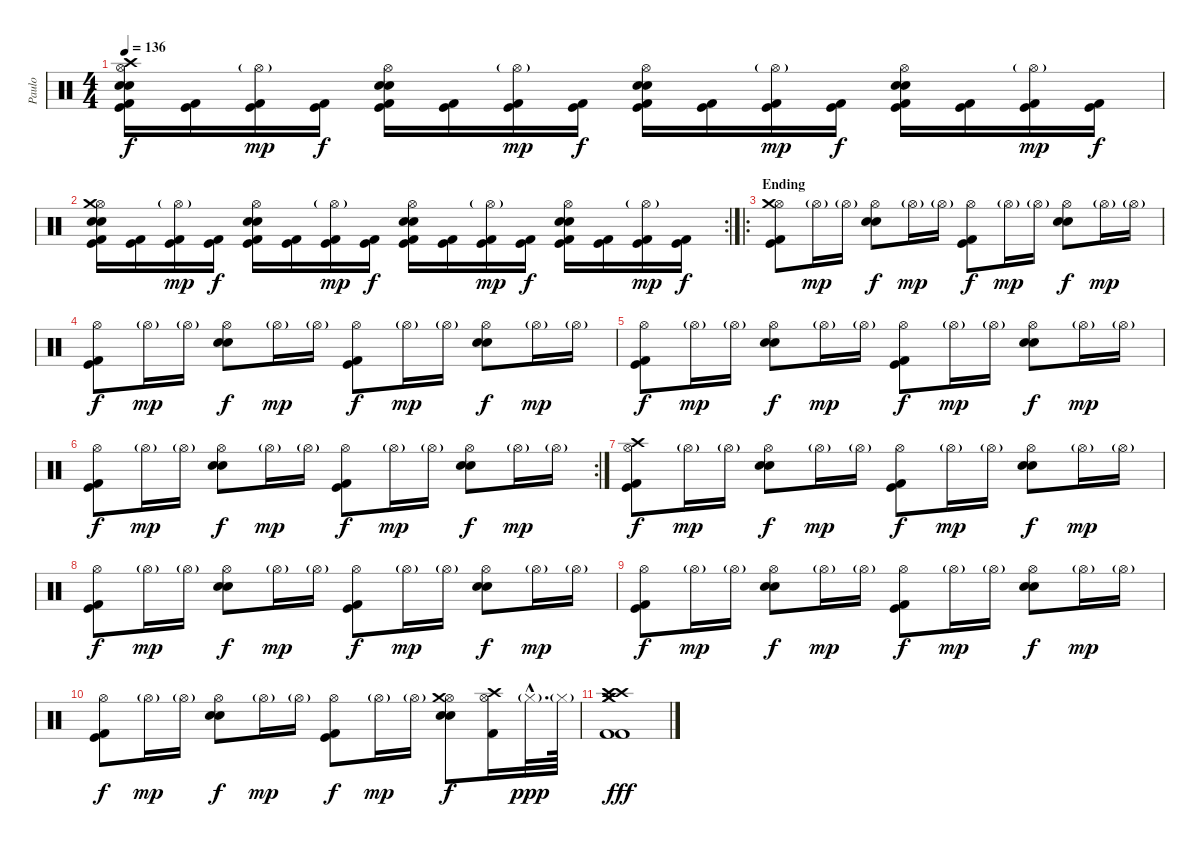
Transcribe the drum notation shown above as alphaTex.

\track ("Paulo" "Paulo") {instrument percussion}
\staff {score}
\articulation defaults
\ts (4 4)
\tempo 136
\clef neutral
\ks c
("Hi-Hat (open)" "Snare (hit) 2" "Electric Snare (hit)" "Crash high (hit)" "Kick (hit) 2" "Kick (hit)").16{dy f} ("Kick (hit) 2" "Kick (hit)").16 ("Hi-Hat (open)"{g} "Kick (hit) 2" "Kick (hit)").16{dy mp} ("Kick (hit) 2" "Kick (hit)").16{dy f} ("Hi-Hat (open)" "Snare (hit) 2" "Electric Snare (hit)" "Kick (hit) 2" "Kick (hit)").16 ("Kick (hit) 2" "Kick (hit)").16 ("Hi-Hat (open)"{g} "Kick (hit) 2" "Kick (hit)").16{dy mp} ("Kick (hit) 2" "Kick (hit)").16{dy f} ("Hi-Hat (open)" "Snare (hit) 2" "Electric Snare (hit)" "Kick (hit) 2" "Kick (hit)").16 ("Kick (hit) 2" "Kick (hit)").16 ("Hi-Hat (open)"{g} "Kick (hit) 2" "Kick (hit)").16{dy mp} ("Kick (hit) 2" "Kick (hit)").16{dy f} ("Hi-Hat (open)" "Snare (hit) 2" "Electric Snare (hit)" "Kick (hit) 2" "Kick (hit)").16 ("Kick (hit) 2" "Kick (hit)").16 ("Hi-Hat (open)"{g} "Kick (hit) 2" "Kick (hit)").16{dy mp} ("Kick (hit) 2" "Kick (hit)").16{dy f} |
\rc 2
("Hi-Hat (open)" "Snare (hit) 2" "Electric Snare (hit)" "Crash medium (hit)" "Kick (hit) 2" "Kick (hit)").16 ("Kick (hit) 2" "Kick (hit)").16 ("Hi-Hat (open)"{g} "Kick (hit) 2" "Kick (hit)").16{dy mp} ("Kick (hit) 2" "Kick (hit)").16{dy f} ("Hi-Hat (open)" "Snare (hit) 2" "Electric Snare (hit)" "Kick (hit) 2" "Kick (hit)").16 ("Kick (hit) 2" "Kick (hit)").16 ("Hi-Hat (open)"{g} "Kick (hit) 2" "Kick (hit)").16{dy mp} ("Kick (hit) 2" "Kick (hit)").16{dy f} ("Hi-Hat (open)" "Snare (hit) 2" "Electric Snare (hit)" "Kick (hit) 2" "Kick (hit)").16 ("Kick (hit) 2" "Kick (hit)").16 ("Hi-Hat (open)"{g} "Kick (hit) 2" "Kick (hit)").16{dy mp} ("Kick (hit) 2" "Kick (hit)").16{dy f} ("Hi-Hat (open)" "Snare (hit) 2" "Electric Snare (hit)" "Kick (hit) 2" "Kick (hit)").16 ("Kick (hit) 2" "Kick (hit)").16 ("Hi-Hat (open)"{g} "Kick (hit) 2" "Kick (hit)").16{dy mp} ("Kick (hit) 2" "Kick (hit)").16{dy f} |
\ro
\section ("" "Ending")
("Hi-Hat (open)" "Kick (hit) 2" "Kick (hit)" "Crash medium (hit)").8 "Hi-Hat (open)"{g}.16{dy mp} "Hi-Hat (open)"{g}.16 ("Hi-Hat (open)" "Snare (hit) 2" "Electric Snare (hit)").8{dy f} "Hi-Hat (open)"{g}.16{dy mp} "Hi-Hat (open)"{g}.16 ("Hi-Hat (open)" "Kick (hit) 2" "Kick (hit)").8{dy f} "Hi-Hat (open)"{g}.16{dy mp} "Hi-Hat (open)"{g}.16 ("Hi-Hat (open)" "Snare (hit) 2" "Electric Snare (hit)").8{dy f} "Hi-Hat (open)"{g}.16{dy mp} "Hi-Hat (open)"{g}.16 |
("Hi-Hat (open)" "Kick (hit) 2" "Kick (hit)").8{dy f} "Hi-Hat (open)"{g}.16{dy mp} "Hi-Hat (open)"{g}.16 ("Hi-Hat (open)" "Snare (hit) 2" "Electric Snare (hit)").8{dy f} "Hi-Hat (open)"{g}.16{dy mp} "Hi-Hat (open)"{g}.16 ("Hi-Hat (open)" "Kick (hit) 2" "Kick (hit)").8{dy f} "Hi-Hat (open)"{g}.16{dy mp} "Hi-Hat (open)"{g}.16 ("Hi-Hat (open)" "Snare (hit) 2" "Electric Snare (hit)").8{dy f} "Hi-Hat (open)"{g}.16{dy mp} "Hi-Hat (open)"{g}.16 |
("Hi-Hat (open)" "Kick (hit) 2" "Kick (hit)").8{dy f} "Hi-Hat (open)"{g}.16{dy mp} "Hi-Hat (open)"{g}.16 ("Hi-Hat (open)" "Snare (hit) 2" "Electric Snare (hit)").8{dy f} "Hi-Hat (open)"{g}.16{dy mp} "Hi-Hat (open)"{g}.16 ("Hi-Hat (open)" "Kick (hit) 2" "Kick (hit)").8{dy f} "Hi-Hat (open)"{g}.16{dy mp} "Hi-Hat (open)"{g}.16 ("Hi-Hat (open)" "Snare (hit) 2" "Electric Snare (hit)").8{dy f} "Hi-Hat (open)"{g}.16{dy mp} "Hi-Hat (open)"{g}.16 |
\rc 2
("Hi-Hat (open)" "Kick (hit) 2" "Kick (hit)").8{dy f} "Hi-Hat (open)"{g}.16{dy mp} "Hi-Hat (open)"{g}.16 ("Hi-Hat (open)" "Snare (hit) 2" "Electric Snare (hit)").8{dy f} "Hi-Hat (open)"{g}.16{dy mp} "Hi-Hat (open)"{g}.16 ("Hi-Hat (open)" "Kick (hit) 2" "Kick (hit)").8{dy f} "Hi-Hat (open)"{g}.16{dy mp} "Hi-Hat (open)"{g}.16 ("Hi-Hat (open)" "Snare (hit) 2" "Electric Snare (hit)").8{dy f} "Hi-Hat (open)"{g}.16{dy mp} "Hi-Hat (open)"{g}.16 |
("Hi-Hat (open)" "Kick (hit) 2" "Kick (hit)" "Crash high (hit)").8{dy f} "Hi-Hat (open)"{g}.16{dy mp} "Hi-Hat (open)"{g}.16 ("Hi-Hat (open)" "Snare (hit) 2" "Electric Snare (hit)").8{dy f} "Hi-Hat (open)"{g}.16{dy mp} "Hi-Hat (open)"{g}.16 ("Hi-Hat (open)" "Kick (hit) 2" "Kick (hit)").8{dy f} "Hi-Hat (open)"{g}.16{dy mp} "Hi-Hat (open)"{g}.16 ("Hi-Hat (open)" "Snare (hit) 2" "Electric Snare (hit)").8{dy f} "Hi-Hat (open)"{g}.16{dy mp} "Hi-Hat (open)"{g}.16 |
("Hi-Hat (open)" "Kick (hit) 2" "Kick (hit)").8{dy f} "Hi-Hat (open)"{g}.16{dy mp} "Hi-Hat (open)"{g}.16 ("Hi-Hat (open)" "Snare (hit) 2" "Electric Snare (hit)").8{dy f} "Hi-Hat (open)"{g}.16{dy mp} "Hi-Hat (open)"{g}.16 ("Hi-Hat (open)" "Kick (hit) 2" "Kick (hit)").8{dy f} "Hi-Hat (open)"{g}.16{dy mp} "Hi-Hat (open)"{g}.16 ("Hi-Hat (open)" "Snare (hit) 2" "Electric Snare (hit)").8{dy f} "Hi-Hat (open)"{g}.16{dy mp} "Hi-Hat (open)"{g}.16 |
("Hi-Hat (open)" "Kick (hit) 2" "Kick (hit)").8{dy f} "Hi-Hat (open)"{g}.16{dy mp} "Hi-Hat (open)"{g}.16 ("Hi-Hat (open)" "Snare (hit) 2" "Electric Snare (hit)").8{dy f} "Hi-Hat (open)"{g}.16{dy mp} "Hi-Hat (open)"{g}.16 ("Hi-Hat (open)" "Kick (hit) 2" "Kick (hit)").8{dy f} "Hi-Hat (open)"{g}.16{dy mp} "Hi-Hat (open)"{g}.16 ("Hi-Hat (open)" "Snare (hit) 2" "Electric Snare (hit)").8{dy f} "Hi-Hat (open)"{g}.16{dy mp} "Hi-Hat (open)"{g}.16 |
("Hi-Hat (open)" "Kick (hit) 2" "Kick (hit)").8{dy f} "Hi-Hat (open)"{g}.16{dy mp} "Hi-Hat (open)"{g}.16 ("Hi-Hat (open)" "Snare (hit) 2" "Electric Snare (hit)").8{dy f} "Hi-Hat (open)"{g}.16{dy mp} "Hi-Hat (open)"{g}.16 ("Hi-Hat (open)" "Kick (hit) 2" "Kick (hit)").8{dy f} "Hi-Hat (open)"{g}.16{dy mp} "Hi-Hat (open)"{g}.16 ("Hi-Hat (open)" "Snare (hit) 2" "Electric Snare (hit)" "Crash medium (hit)").8{dy f} ("Hi-Hat (open)" "Kick (hit) 2" "Crash high (hit)").16 "Hi-Hat (closed)"{g hac}.32{d dy ppp} "Hi-Hat (closed)"{g}.64 |
("Crash medium (hit)" "Crash high (hit)" "Kick (hit) 2" "Kick (hit) 2" "Crash high (hit)" "Crash medium (hit)").1{dy fff}
